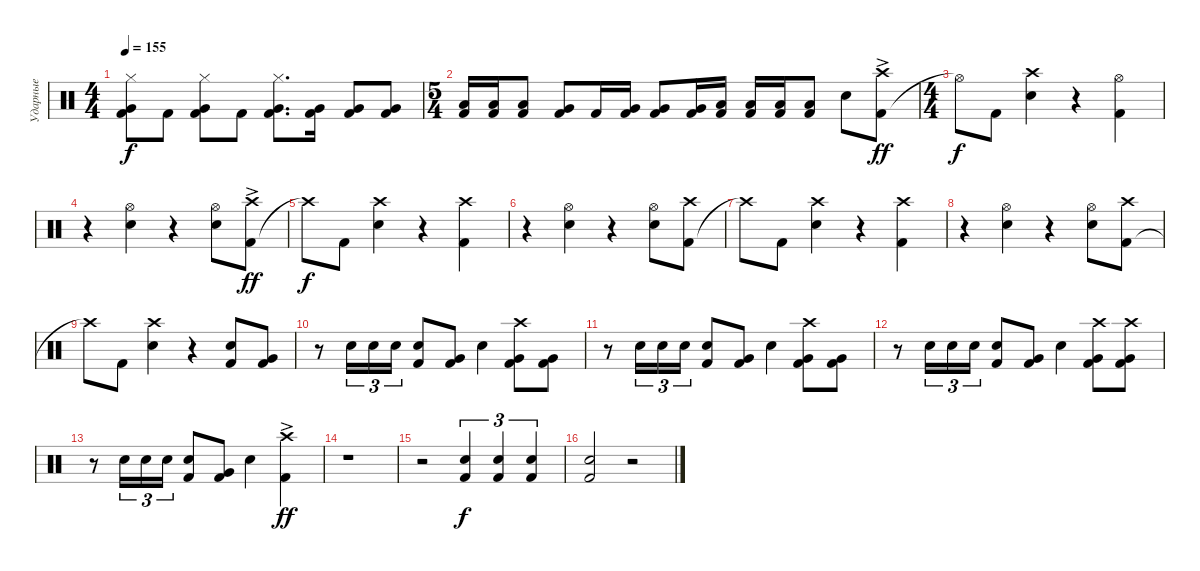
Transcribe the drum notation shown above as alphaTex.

\track ("Ударные" "Ударные") {instrument percussion}
\staff
\articulation defaults
\ts (4 4)
\tempo 155
\clef neutral
\ks c
("Kick (hit) 2" "Very Low Tom (hit)" "Hi-Hat (closed)").8{dy f} "Kick (hit) 2".8 ("Kick (hit) 2" "Very Low Tom (hit)" "Hi-Hat (closed)").8 "Kick (hit) 2".8 ("Kick (hit) 2" "Very Low Tom (hit)" "Hi-Hat (closed)").8{d} ("Kick (hit) 2" "Very Low Tom (hit)").16 ("Kick (hit) 2" "Very Low Tom (hit)").8 ("Kick (hit) 2" "Very Low Tom (hit)").8 |
\ts (5 4)
("Kick (hit) 2" "Low Tom (hit)").16 ("Kick (hit) 2" "Low Tom (hit)").16 ("Kick (hit) 2" "Low Tom (hit)").8 ("Kick (hit) 2" "Very Low Tom (hit)").8 "Kick (hit) 2".16 ("Kick (hit) 2" "Very Low Tom (hit)").16 ("Kick (hit) 2" "Very Low Tom (hit)").8 ("Kick (hit) 2" "Very Low Tom (hit)").16 ("Kick (hit) 2" "Low Floor Tom (hit)").16 ("Kick (hit) 2" "Low Floor Tom (hit)").16 ("Kick (hit) 2" "Low Floor Tom (hit)").16 ("Kick (hit) 2" "Low Floor Tom (hit)").8 "Snare (hit) 2".8 ("Kick (hit) 2" "Crash high (hit)"{ac}).8{dy ff} |
\ts (4 4)
"Hi-Hat (open)"{t}.8{dy f} "Kick (hit) 2".8 ("Snare (hit) 2" "Crash high (hit)").4 r.4 ("Kick (hit) 2" "Hi-Hat (open)").4 |
r.4 ("Snare (hit) 2" "Hi-Hat (open)").4 r.4 ("Snare (hit) 2" "Hi-Hat (open)").8 ("Kick (hit) 2" "Crash high (hit)"{ac}).8{dy ff} |
"Crash high (hit)"{t}.8{dy f} "Kick (hit) 2".8 ("Snare (hit) 2" "Crash high (hit)").4 r.4 ("Kick (hit) 2" "Crash high (hit)").4 |
r.4 ("Snare (hit) 2" "Hi-Hat (open)").4 r.4 ("Snare (hit) 2" "Hi-Hat (open)").8 ("Kick (hit) 2" "Crash high (hit)").8 |
"Crash high (hit)"{t}.8 "Kick (hit) 2".8 ("Snare (hit) 2" "Crash high (hit)").4 r.4 ("Kick (hit) 2" "Crash high (hit)").4 |
r.4 ("Snare (hit) 2" "Hi-Hat (open)").4 r.4 ("Snare (hit) 2" "Hi-Hat (open)").8 ("Kick (hit) 2" "Crash high (hit)").8 |
"Crash high (hit)"{t}.8 "Kick (hit) 2".8 ("Snare (hit) 2" "Crash high (hit)").4 r.4 ("Kick (hit) 2" "Snare (hit) 2").8 ("Kick (hit) 2" "Very Low Tom (hit)").8 |
r.8 "Electric Snare (hit)".16{tu (3 2)} "Electric Snare (hit)".16{tu (3 2)} "Electric Snare (hit)".16{tu (3 2)} ("Kick (hit) 2" "Snare (hit) 2").8 ("Kick (hit) 2" "Very Low Tom (hit)").8 "Snare (hit) 2".4 ("Kick (hit) 2" "Very Low Tom (hit)" "Crash high (hit)").8 ("Kick (hit) 2" "Very Low Tom (hit)").8 |
r.8 "Electric Snare (hit)".16{tu (3 2)} "Electric Snare (hit)".16{tu (3 2)} "Electric Snare (hit)".16{tu (3 2)} ("Kick (hit) 2" "Snare (hit) 2").8 ("Kick (hit) 2" "Very Low Tom (hit)").8 "Snare (hit) 2".4 ("Kick (hit) 2" "Very Low Tom (hit)" "Crash high (hit)").8 ("Kick (hit) 2" "Very Low Tom (hit)").8 |
r.8 "Electric Snare (hit)".16{tu (3 2)} "Electric Snare (hit)".16{tu (3 2)} "Electric Snare (hit)".16{tu (3 2)} ("Kick (hit) 2" "Snare (hit) 2").8 ("Kick (hit) 2" "Very Low Tom (hit)").8 "Snare (hit) 2".4 ("Kick (hit) 2" "Very Low Tom (hit)" "Crash high (hit)").8 ("Kick (hit) 2" "Very Low Tom (hit)" "Crash high (hit)").8 |
r.8 "Electric Snare (hit)".16{tu (3 2)} "Electric Snare (hit)".16{tu (3 2)} "Electric Snare (hit)".16{tu (3 2)} ("Kick (hit) 2" "Snare (hit) 2").8 ("Kick (hit) 2" "Very Low Tom (hit)").8 "Snare (hit) 2".4 ("Kick (hit) 2" "Crash high (hit)"{ac}).4{dy ff} |
r.1 |
r.2 ("Kick (hit) 2" "Snare (hit) 2").4{tu (3 2) dy f} ("Kick (hit) 2" "Snare (hit) 2").4{tu (3 2)} ("Kick (hit) 2" "Snare (hit) 2").4{tu (3 2)} |
("Kick (hit) 2" "Snare (hit) 2").2 r.2
